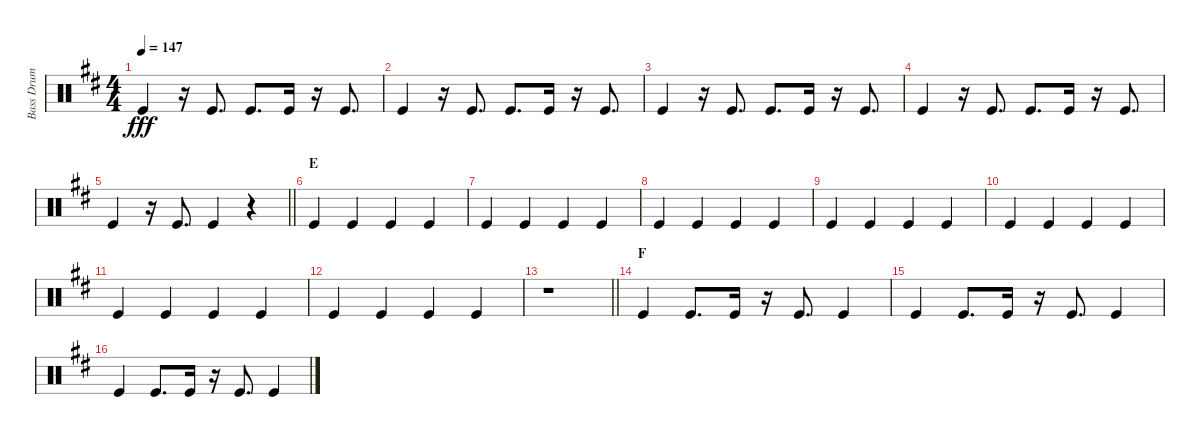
\track ("Bass Drum" "Bass Drum") {instrument percussion}
\staff {score}
\articulation defaults
\ts (4 4)
\tempo 147
\clef neutral
\ks d "Kick (hit)".4{dy fff}
r.16 "Kick (hit)".8{d} "Kick (hit)".8{d} "Kick (hit)".16 r.16 "Kick (hit)".8{d} |
"Kick (hit)".4 r.16 "Kick (hit)".8{d} "Kick (hit)".8{d} "Kick (hit)".16 r.16 "Kick (hit)".8{d} |
"Kick (hit)".4 r.16 "Kick (hit)".8{d} "Kick (hit)".8{d} "Kick (hit)".16 r.16 "Kick (hit)".8{d} |
"Kick (hit)".4 r.16 "Kick (hit)".8{d} "Kick (hit)".8{d} "Kick (hit)".16 r.16 "Kick (hit)".8{d} |
\barLineRight lightlight "Kick (hit)".4
r.16 "Kick (hit)".8{d} "Kick (hit)".4 r.4 |
\section ("" "E")
"Kick (hit)".4 "Kick (hit)".4 "Kick (hit)".4 "Kick (hit)".4 |
"Kick (hit)".4 "Kick (hit)".4 "Kick (hit)".4 "Kick (hit)".4 |
"Kick (hit)".4 "Kick (hit)".4 "Kick (hit)".4 "Kick (hit)".4 |
"Kick (hit)".4 "Kick (hit)".4 "Kick (hit)".4 "Kick (hit)".4 |
"Kick (hit)".4 "Kick (hit)".4 "Kick (hit)".4 "Kick (hit)".4 |
"Kick (hit)".4 "Kick (hit)".4 "Kick (hit)".4 "Kick (hit)".4 |
"Kick (hit)".4 "Kick (hit)".4 "Kick (hit)".4 "Kick (hit)".4 |
\barLineRight lightlight
r.1 |
\section ("" "F")
"Kick (hit)".4 "Kick (hit)".8{d} "Kick (hit)".16 r.16 "Kick (hit)".8{d} "Kick (hit)".4 |
"Kick (hit)".4 "Kick (hit)".8{d} "Kick (hit)".16 r.16 "Kick (hit)".8{d} "Kick (hit)".4 |
"Kick (hit)".4 "Kick (hit)".8{d} "Kick (hit)".16 r.16 "Kick (hit)".8{d} "Kick (hit)".4
